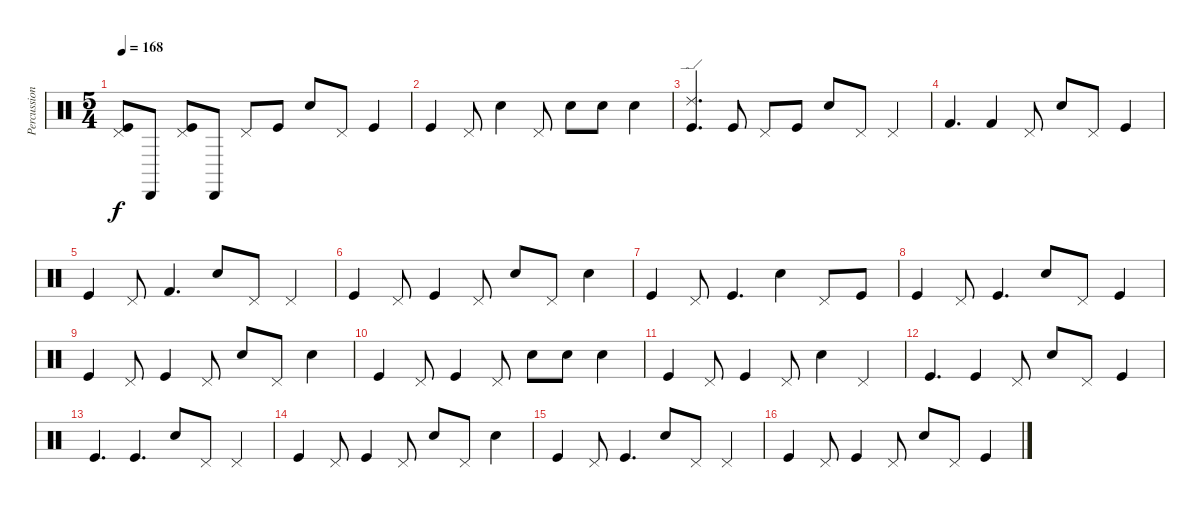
\track ("Percussion" "Percussion") {instrument percussion}
\staff {score}
\articulation defaults
\ts (5 4)
\tempo 168
\clef neutral
\ks c
("Kick (hit)" "Pedal Hi-Hat (hit)").8{dy f} "Cabasa (hit)".8 ("Kick (hit)" "Pedal Hi-Hat (hit)").8 "Cabasa (hit)".8 "Pedal Hi-Hat (hit)".8 "Kick (hit)".8 "Snare (hit) 2".8 "Pedal Hi-Hat (hit)".8 "Kick (hit)".4 |
"Kick (hit)".4 "Pedal Hi-Hat (hit)".8 "Snare (hit) 2".4 "Pedal Hi-Hat (hit)".8 "Snare (hit) 2".8 "Snare (hit) 2".8 "Snare (hit) 2".4 |
("Kick (hit)" "Ride (edge) 2").4{d} "Kick (hit)".8 "Pedal Hi-Hat (hit)".8 "Kick (hit)".8 "Snare (hit) 2".8 "Pedal Hi-Hat (hit)".8 "Pedal Hi-Hat (hit)".4 |
"Kick (hit) 2".4{d} "Kick (hit) 2".4 "Pedal Hi-Hat (hit)".8 "Snare (hit) 2".8 "Pedal Hi-Hat (hit)".8 "Kick (hit)".4 |
"Kick (hit)".4 "Pedal Hi-Hat (hit)".8 "Kick (hit) 2".4{d} "Snare (hit) 2".8 "Pedal Hi-Hat (hit)".8 "Pedal Hi-Hat (hit)".4 |
"Kick (hit)".4 "Pedal Hi-Hat (hit)".8 "Kick (hit)".4 "Pedal Hi-Hat (hit)".8 "Snare (hit) 2".8 "Pedal Hi-Hat (hit)".8 "Snare (hit) 2".4 |
"Kick (hit)".4 "Pedal Hi-Hat (hit)".8 "Kick (hit)".4{d} "Snare (hit) 2".4 "Pedal Hi-Hat (hit)".8 "Kick (hit)".8 |
"Kick (hit)".4 "Pedal Hi-Hat (hit)".8 "Kick (hit)".4{d} "Snare (hit) 2".8 "Pedal Hi-Hat (hit)".8 "Kick (hit)".4 |
"Kick (hit)".4 "Pedal Hi-Hat (hit)".8 "Kick (hit)".4 "Pedal Hi-Hat (hit)".8 "Snare (hit) 2".8 "Pedal Hi-Hat (hit)".8 "Snare (hit) 2".4 |
"Kick (hit)".4 "Pedal Hi-Hat (hit)".8 "Kick (hit)".4 "Pedal Hi-Hat (hit)".8 "Snare (hit) 2".8 "Snare (hit) 2".8 "Snare (hit) 2".4 |
"Kick (hit)".4 "Pedal Hi-Hat (hit)".8 "Kick (hit)".4 "Pedal Hi-Hat (hit)".8 "Snare (hit) 2".4 "Pedal Hi-Hat (hit)".4 |
"Kick (hit)".4{d} "Kick (hit)".4 "Pedal Hi-Hat (hit)".8 "Snare (hit) 2".8 "Pedal Hi-Hat (hit)".8 "Kick (hit)".4 |
"Kick (hit)".4{d} "Kick (hit)".4{d} "Snare (hit) 2".8 "Pedal Hi-Hat (hit)".8 "Pedal Hi-Hat (hit)".4 |
"Kick (hit)".4 "Pedal Hi-Hat (hit)".8 "Kick (hit)".4 "Pedal Hi-Hat (hit)".8 "Snare (hit) 2".8 "Pedal Hi-Hat (hit)".8 "Snare (hit) 2".4 |
"Kick (hit)".4 "Pedal Hi-Hat (hit)".8 "Kick (hit)".4{d} "Snare (hit) 2".8 "Pedal Hi-Hat (hit)".8 "Pedal Hi-Hat (hit)".4 |
"Kick (hit)".4 "Pedal Hi-Hat (hit)".8 "Kick (hit)".4 "Pedal Hi-Hat (hit)".8 "Snare (hit) 2".8 "Pedal Hi-Hat (hit)".8 "Kick (hit)".4
